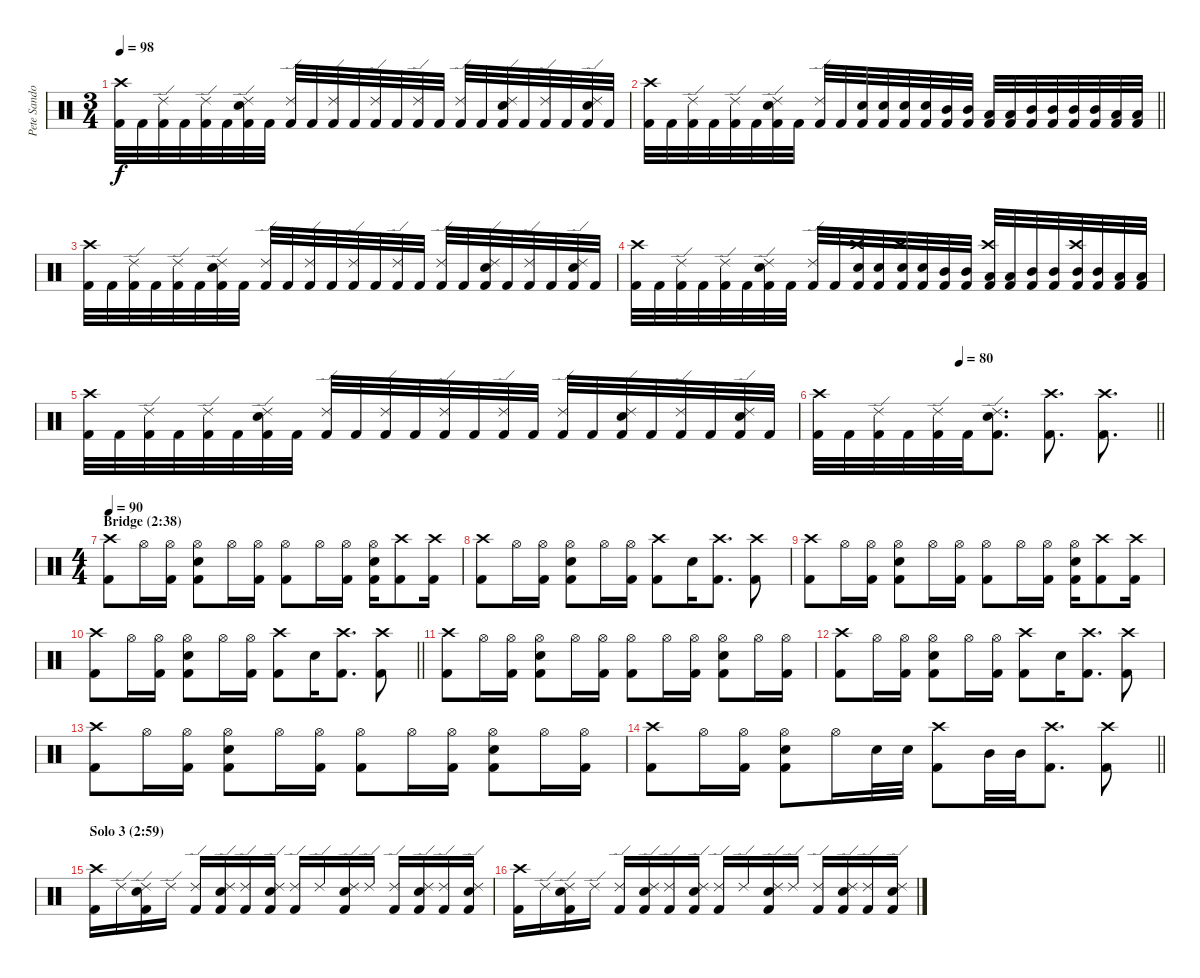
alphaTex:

\track ("Pete Sandoval " "Pete Sando") {instrument percussion}
\staff {score}
\articulation defaults
\ts (3 4)
\tempo 98
\clef neutral
\ks c
("Kick (hit) 2" "Crash high (hit)").32{dy f} "Kick (hit) 2".32 ("Kick (hit) 2" "Ride (edge) 2").32 "Kick (hit) 2".32 ("Kick (hit) 2" "Ride (edge) 2").32 "Kick (hit) 2".32 ("Kick (hit) 2" "Snare (hit) 2" "Ride (edge) 2").32 "Kick (hit) 2".32 ("Kick (hit) 2" "Ride (edge) 2").32 "Kick (hit) 2".32 ("Kick (hit) 2" "Ride (edge) 2").32 "Kick (hit) 2".32 ("Kick (hit) 2" "Ride (edge) 2").32 "Kick (hit) 2".32 ("Kick (hit) 2" "Ride (edge) 2").32 "Kick (hit) 2".32 ("Kick (hit) 2" "Ride (edge) 2").32 "Kick (hit) 2".32 ("Kick (hit) 2" "Snare (hit) 2" "Ride (edge) 2").32 "Kick (hit) 2".32 ("Kick (hit) 2" "Ride (edge) 2").32 "Kick (hit) 2".32 ("Kick (hit) 2" "Snare (hit) 2" "Ride (edge) 2").32 "Kick (hit) 2".32 |
\barLineRight lightlight
("Kick (hit) 2" "Crash high (hit)").32 "Kick (hit) 2".32 ("Kick (hit) 2" "Ride (edge) 2").32 "Kick (hit) 2".32 ("Kick (hit) 2" "Ride (edge) 2").32 "Kick (hit) 2".32 ("Kick (hit) 2" "Snare (hit) 2" "Ride (edge) 2").32 "Kick (hit) 2".32 ("Kick (hit) 2" "Ride (edge) 2").32 "Kick (hit) 2".32 ("Kick (hit) 2" "Snare (hit) 2").32 ("Kick (hit) 2" "Snare (hit) 2").32 ("Kick (hit) 2" "Snare (hit) 2").32 ("Kick (hit) 2" "Snare (hit) 2").32 ("Kick (hit) 2" "Mid Tom (hit)").32 ("Kick (hit) 2" "Mid Tom (hit)").32 ("Kick (hit) 2" "Low Tom (hit)").32 ("Kick (hit) 2" "Low Tom (hit)").32 ("Kick (hit) 2" "Mid Tom (hit)").32 ("Kick (hit) 2" "Mid Tom (hit)").32 ("Kick (hit) 2" "Mid Tom (hit)").32 ("Kick (hit) 2" "Mid Tom (hit)").32 ("Kick (hit) 2" "Low Tom (hit)").32 ("Kick (hit) 2" "Low Tom (hit)").32 |
("Kick (hit) 2" "Crash high (hit)").32 "Kick (hit) 2".32 ("Kick (hit) 2" "Ride (edge) 2").32 "Kick (hit) 2".32 ("Kick (hit) 2" "Ride (edge) 2").32 "Kick (hit) 2".32 ("Kick (hit) 2" "Snare (hit) 2" "Ride (edge) 2").32 "Kick (hit) 2".32 ("Kick (hit) 2" "Ride (edge) 2").32 "Kick (hit) 2".32 ("Kick (hit) 2" "Ride (edge) 2").32 "Kick (hit) 2".32 ("Kick (hit) 2" "Ride (edge) 2").32 "Kick (hit) 2".32 ("Kick (hit) 2" "Ride (edge) 2").32 "Kick (hit) 2".32 ("Kick (hit) 2" "Ride (edge) 2").32 "Kick (hit) 2".32 ("Kick (hit) 2" "Snare (hit) 2" "Ride (edge) 2").32 "Kick (hit) 2".32 ("Kick (hit) 2" "Ride (edge) 2").32 "Kick (hit) 2".32 ("Kick (hit) 2" "Snare (hit) 2" "Ride (edge) 2").32 "Kick (hit) 2".32 |
("Kick (hit) 2" "Crash high (hit)").32 "Kick (hit) 2".32 ("Kick (hit) 2" "Ride (edge) 2").32 "Kick (hit) 2".32 ("Kick (hit) 2" "Ride (edge) 2").32 "Kick (hit) 2".32 ("Kick (hit) 2" "Snare (hit) 2" "Ride (edge) 2").32 "Kick (hit) 2".32 ("Kick (hit) 2" "Ride (edge) 2").32 "Kick (hit) 2".32 ("Kick (hit) 2" "Snare (hit) 2" "Crash high (hit)").32 ("Kick (hit) 2" "Snare (hit) 2").32 ("Kick (hit) 2" "Snare (hit) 2" "Crash high (hit)").32 ("Kick (hit) 2" "Snare (hit) 2").32 ("Kick (hit) 2" "Mid Tom (hit)").32 ("Kick (hit) 2" "Mid Tom (hit)").32 ("Kick (hit) 2" "Low Tom (hit)" "Crash high (hit)").32 ("Kick (hit) 2" "Low Tom (hit)").32 ("Kick (hit) 2" "Mid Tom (hit)").32 ("Kick (hit) 2" "Mid Tom (hit)").32 ("Kick (hit) 2" "Mid Tom (hit)" "Crash high (hit)").32 ("Kick (hit) 2" "Mid Tom (hit)").32 ("Kick (hit) 2" "Low Tom (hit)").32 ("Kick (hit) 2" "Low Tom (hit)").32 |
("Kick (hit) 2" "Crash high (hit)").32 "Kick (hit) 2".32 ("Kick (hit) 2" "Ride (edge) 2").32 "Kick (hit) 2".32 ("Kick (hit) 2" "Ride (edge) 2").32 "Kick (hit) 2".32 ("Kick (hit) 2" "Snare (hit) 2" "Ride (edge) 2").32 "Kick (hit) 2".32 ("Kick (hit) 2" "Ride (edge) 2").32 "Kick (hit) 2".32 ("Kick (hit) 2" "Ride (edge) 2").32 "Kick (hit) 2".32 ("Kick (hit) 2" "Ride (edge) 2").32 "Kick (hit) 2".32 ("Kick (hit) 2" "Ride (edge) 2").32 "Kick (hit) 2".32 ("Kick (hit) 2" "Ride (edge) 2").32 "Kick (hit) 2".32 ("Kick (hit) 2" "Snare (hit) 2" "Ride (edge) 2").32 "Kick (hit) 2".32 ("Kick (hit) 2" "Ride (edge) 2").32 "Kick (hit) 2".32 ("Kick (hit) 2" "Snare (hit) 2" "Ride (edge) 2").32 "Kick (hit) 2".32 |
\tempo (80 0.4166666666666667)
\barLineRight lightlight
("Kick (hit) 2" "Crash high (hit)").32 "Kick (hit) 2".32 ("Kick (hit) 2" "Ride (edge) 2").32 "Kick (hit) 2".32 ("Kick (hit) 2" "Ride (edge) 2").32 "Kick (hit) 2".32 ("Kick (hit) 2" "Snare (hit) 2" "Ride (edge) 2").8{d} ("Kick (hit) 2" "Crash high (hit)").8{d} ("Kick (hit) 2" "Crash high (hit)").8{d} |
\ts (4 4)
\section ("" "Bridge (2:38)")
\tempo 90
("Kick (hit) 2" "Crash high (hit)").8 "Hi-Hat (open)".16 ("Kick (hit) 2" "Hi-Hat (open)").16 ("Kick (hit) 2" "Snare (hit) 2" "Hi-Hat (open)").8 "Hi-Hat (open)".16 ("Kick (hit) 2" "Hi-Hat (open)").16 ("Kick (hit) 2" "Hi-Hat (open)").8 "Hi-Hat (open)".16 ("Kick (hit) 2" "Hi-Hat (open)").16 ("Kick (hit) 2" "Snare (hit) 2" "Hi-Hat (open)").16 ("Kick (hit) 2" "Crash high (hit)").8 ("Kick (hit) 2" "Crash high (hit)").16 |
("Kick (hit) 2" "Crash high (hit)").8 "Hi-Hat (open)".16 ("Kick (hit) 2" "Hi-Hat (open)").16 ("Kick (hit) 2" "Snare (hit) 2" "Hi-Hat (open)").8 "Hi-Hat (open)".16 ("Kick (hit) 2" "Hi-Hat (open)").16 ("Kick (hit) 2" "Crash high (hit)").8 "Snare (hit) 2".16 ("Kick (hit) 2" "Crash high (hit)").8{d} ("Kick (hit) 2" "Crash high (hit)").8 |
("Kick (hit) 2" "Crash high (hit)").8 "Hi-Hat (open)".16 ("Kick (hit) 2" "Hi-Hat (open)").16 ("Kick (hit) 2" "Snare (hit) 2" "Hi-Hat (open)").8 "Hi-Hat (open)".16 ("Kick (hit) 2" "Hi-Hat (open)").16 ("Kick (hit) 2" "Hi-Hat (open)").8 "Hi-Hat (open)".16 ("Kick (hit) 2" "Hi-Hat (open)").16 ("Kick (hit) 2" "Snare (hit) 2" "Hi-Hat (open)").16 ("Kick (hit) 2" "Crash high (hit)").8 ("Kick (hit) 2" "Crash high (hit)").16 |
\barLineRight lightlight
("Kick (hit) 2" "Crash high (hit)").8 "Hi-Hat (open)".16 ("Kick (hit) 2" "Hi-Hat (open)").16 ("Kick (hit) 2" "Snare (hit) 2" "Hi-Hat (open)").8 "Hi-Hat (open)".16 ("Kick (hit) 2" "Hi-Hat (open)").16 ("Kick (hit) 2" "Crash high (hit)").8 "Snare (hit) 2".16 ("Kick (hit) 2" "Crash high (hit)").8{d} ("Kick (hit) 2" "Crash high (hit)").8 |
("Kick (hit) 2" "Crash high (hit)").8 "Hi-Hat (open)".16 ("Kick (hit) 2" "Hi-Hat (open)").16 ("Kick (hit) 2" "Snare (hit) 2" "Hi-Hat (open)").8 "Hi-Hat (open)".16 ("Kick (hit) 2" "Hi-Hat (open)").16 ("Kick (hit) 2" "Hi-Hat (open)").8 "Hi-Hat (open)".16 ("Kick (hit) 2" "Hi-Hat (open)").16 ("Kick (hit) 2" "Snare (hit) 2" "Hi-Hat (open)").8 "Hi-Hat (open)".16 ("Kick (hit) 2" "Hi-Hat (open)").16 |
("Kick (hit) 2" "Crash high (hit)").8 "Hi-Hat (open)".16 ("Kick (hit) 2" "Hi-Hat (open)").16 ("Kick (hit) 2" "Snare (hit) 2" "Hi-Hat (open)").8 "Hi-Hat (open)".16 ("Kick (hit) 2" "Hi-Hat (open)").16 ("Kick (hit) 2" "Crash high (hit)").8 "Snare (hit) 2".16 ("Kick (hit) 2" "Crash high (hit)").8{d} ("Kick (hit) 2" "Crash high (hit)").8 |
("Kick (hit) 2" "Crash high (hit)").8 "Hi-Hat (open)".16 ("Kick (hit) 2" "Hi-Hat (open)").16 ("Kick (hit) 2" "Snare (hit) 2" "Hi-Hat (open)").8 "Hi-Hat (open)".16 ("Kick (hit) 2" "Hi-Hat (open)").16 ("Kick (hit) 2" "Hi-Hat (open)").8 "Hi-Hat (open)".16 ("Kick (hit) 2" "Hi-Hat (open)").16 ("Kick (hit) 2" "Snare (hit) 2" "Hi-Hat (open)").8 "Hi-Hat (open)".16 ("Kick (hit) 2" "Hi-Hat (open)").16 |
\barLineRight lightlight
("Kick (hit) 2" "Crash high (hit)").8 "Hi-Hat (open)".16 ("Kick (hit) 2" "Hi-Hat (open)").16 ("Kick (hit) 2" "Snare (hit) 2" "Hi-Hat (open)").8 "Hi-Hat (open)".16 "Snare (hit) 2".32 "Snare (hit) 2".32 ("Kick (hit) 2" "Crash high (hit)").8 "Mid Tom (hit)".32 "Mid Tom (hit)".32 ("Kick (hit) 2" "Crash high (hit)").8{d} ("Kick (hit) 2" "Crash high (hit)").8 |
\section ("" "Solo 3 (2:59)")
("Kick (hit) 2" "Crash high (hit)").16 "Ride (edge) 2".16 ("Kick (hit) 2" "Snare (hit) 2" "Ride (edge) 2").16 "Ride (edge) 2".16 ("Kick (hit) 2" "Ride (edge) 2").16 ("Kick (hit) 2" "Snare (hit) 2" "Ride (edge) 2").16 ("Kick (hit) 2" "Ride (edge) 2").16 ("Kick (hit) 2" "Snare (hit) 2" "Ride (edge) 2").16 ("Kick (hit) 2" "Ride (edge) 2").16 "Ride (edge) 2".16 ("Kick (hit) 2" "Snare (hit) 2" "Ride (edge) 2").16 "Ride (edge) 2".16 ("Kick (hit) 2" "Ride (edge) 2").16 ("Kick (hit) 2" "Snare (hit) 2" "Ride (edge) 2").16 ("Kick (hit) 2" "Ride (edge) 2").16 ("Kick (hit) 2" "Snare (hit) 2" "Ride (edge) 2").16 |
("Kick (hit) 2" "Crash high (hit)").16 "Ride (edge) 2".16 ("Kick (hit) 2" "Snare (hit) 2" "Ride (edge) 2").16 "Ride (edge) 2".16 ("Kick (hit) 2" "Ride (edge) 2").16 ("Kick (hit) 2" "Snare (hit) 2" "Ride (edge) 2").16 ("Kick (hit) 2" "Ride (edge) 2").16 ("Kick (hit) 2" "Snare (hit) 2" "Ride (edge) 2").16 ("Kick (hit) 2" "Ride (edge) 2").16 "Ride (edge) 2".16 ("Kick (hit) 2" "Snare (hit) 2" "Ride (edge) 2").16 "Ride (edge) 2".16 ("Kick (hit) 2" "Ride (edge) 2").16 ("Kick (hit) 2" "Snare (hit) 2" "Ride (edge) 2").16 ("Kick (hit) 2" "Ride (edge) 2").16 ("Kick (hit) 2" "Snare (hit) 2" "Ride (edge) 2").16
